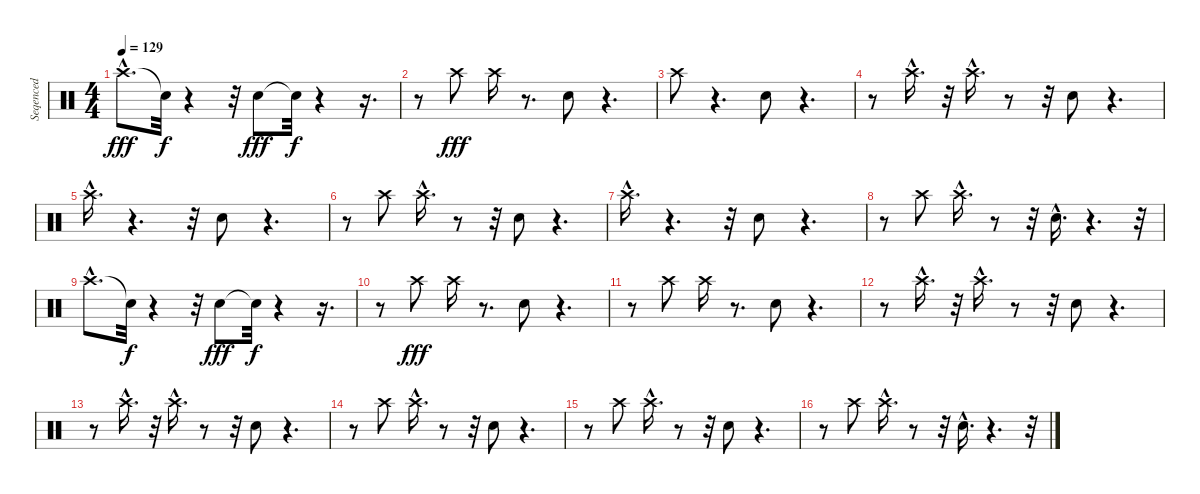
\track (" Seqenced by Juri D." " Seqenced ") {instrument percussion}
\staff {score}
\articulation defaults
\ts (4 4)
\tempo 129
\clef neutral
\ks c "Crash high (hit)"{hac}.8{d dy fff} "Snare (hit)"{t}.32{dy f}
r.4 r.32 "Snare (hit) 2".8{dy fff} "Snare (hit)"{t}.32{dy f} r.4 r.16{d} |
r.8 "Crash high (hit)".8{dy fff} "Crash high (hit)".16 r.8{d} "Snare (hit) 2".8 r.4{d} |
"Crash high (hit)".8 r.4{d} "Snare (hit) 2".8 r.4{d} |
r.8 "Crash high (hit)"{hac}.16{d} r.32 "Crash high (hit)"{hac}.16{d} r.8 r.32 "Snare (hit) 2".8 r.4{d} |
"Crash high (hit)"{hac}.16{d} r.4{d} r.32 "Snare (hit) 2".8 r.4{d} |
r.8 "Crash high (hit)".8 "Crash high (hit)"{hac}.16{d} r.8 r.32 "Snare (hit) 2".8 r.4{d} |
"Crash high (hit)"{hac}.16{d} r.4{d} r.32 "Snare (hit) 2".8 r.4{d} |
r.8 "Crash high (hit)".8 "Crash high (hit)"{hac}.16{d} r.8 r.32 "Snare (hit) 2"{hac}.16{d} r.4{d} r.32 |
"Crash high (hit)"{hac}.8{d} "Snare (hit)"{t}.32{dy f} r.4 r.32 "Snare (hit) 2".8{dy fff} "Snare (hit)"{t}.32{dy f} r.4 r.16{d} |
r.8 "Crash high (hit)".8{dy fff} "Crash high (hit)".16 r.8{d} "Snare (hit) 2".8 r.4{d} |
r.8 "Crash high (hit)".8 "Crash high (hit)".16 r.8{d} "Snare (hit) 2".8 r.4{d} |
r.8 "Crash high (hit)"{hac}.16{d} r.32 "Crash high (hit)"{hac}.16{d} r.8 r.32 "Snare (hit) 2".8 r.4{d} |
r.8 "Crash high (hit)"{hac}.16{d} r.32 "Crash high (hit)"{hac}.16{d} r.8 r.32 "Snare (hit) 2".8 r.4{d} |
r.8 "Crash high (hit)".8 "Crash high (hit)"{hac}.16{d} r.8 r.32 "Snare (hit) 2".8 r.4{d} |
r.8 "Crash high (hit)".8 "Crash high (hit)"{hac}.16{d} r.8 r.32 "Snare (hit) 2".8 r.4{d} |
r.8 "Crash high (hit)".8 "Crash high (hit)"{hac}.16{d} r.8 r.32 "Snare (hit) 2"{hac}.16{d} r.4{d} r.32
